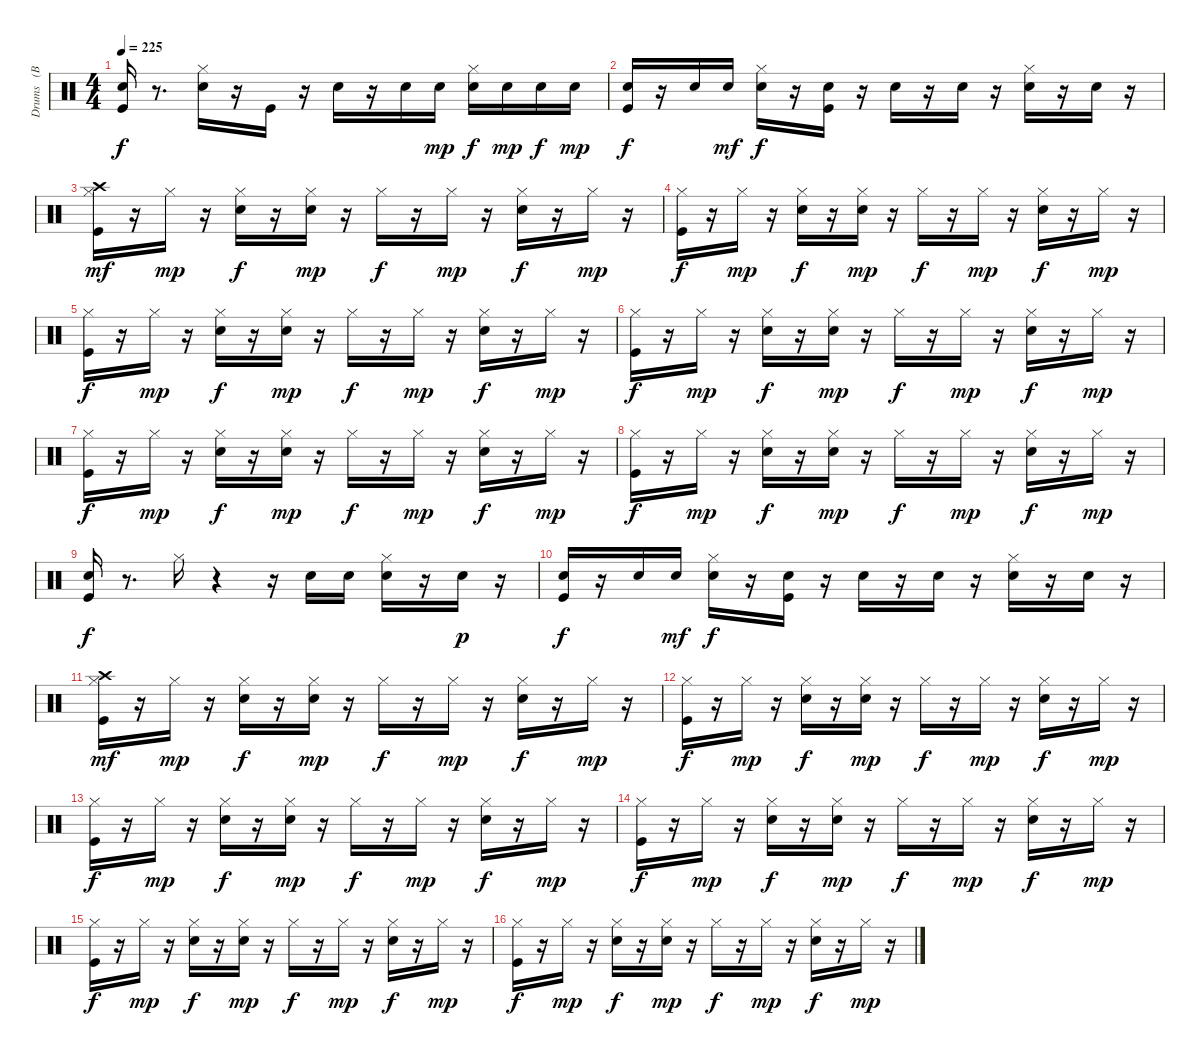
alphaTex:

\track ("Drums   (BB)" "Drums   (B") {instrument percussion}
\staff {score}
\articulation defaults
\ts (4 4)
\tempo 225
\clef neutral
\ks c
("Kick (hit)" "Snare (hit) 2").16{dy f} r.8{d} ("Snare (hit) 2" "Hi-Hat (closed)").16 r.16 "Kick (hit)".16 r.16 "Snare (hit) 2".16 r.16 "Snare (hit) 2".16 "Snare (hit) 2".16{dy mp} ("Snare (hit) 2" "Hi-Hat (closed)").16{dy f} "Snare (hit) 2".16{dy mp} "Snare (hit) 2".16{dy f} "Snare (hit) 2".16{dy mp} |
("Kick (hit)" "Snare (hit) 2").16{dy f} r.16 "Snare (hit) 2".16 "Snare (hit) 2".16{dy mf} ("Snare (hit) 2" "Hi-Hat (closed)").16{dy f} r.16 ("Kick (hit)" "Snare (hit) 2").16 r.16 "Snare (hit) 2".16 r.16 "Snare (hit) 2".16 r.16 ("Snare (hit) 2" "Hi-Hat (closed)").16 r.16 "Snare (hit) 2".16 r.16 |
("Kick (hit)" "Hi-Hat (closed)" "Crash high (hit)").16{dy mf} r.16 "Hi-Hat (closed)".16{dy mp} r.16 ("Snare (hit) 2" "Hi-Hat (closed)").16{dy f} r.16 ("Snare (hit) 2" "Hi-Hat (closed)").16{dy mp} r.16 "Hi-Hat (closed)".16{dy f} r.16 "Hi-Hat (closed)".16{dy mp} r.16 ("Snare (hit) 2" "Hi-Hat (closed)").16{dy f} r.16 "Hi-Hat (closed)".16{dy mp} r.16 |
("Kick (hit)" "Hi-Hat (closed)").16{dy f} r.16 "Hi-Hat (closed)".16{dy mp} r.16 ("Snare (hit) 2" "Hi-Hat (closed)").16{dy f} r.16 ("Snare (hit) 2" "Hi-Hat (closed)").16{dy mp} r.16 "Hi-Hat (closed)".16{dy f} r.16 "Hi-Hat (closed)".16{dy mp} r.16 ("Snare (hit) 2" "Hi-Hat (closed)").16{dy f} r.16 "Hi-Hat (closed)".16{dy mp} r.16 |
("Kick (hit)" "Hi-Hat (closed)").16{dy f} r.16 "Hi-Hat (closed)".16{dy mp} r.16 ("Snare (hit) 2" "Hi-Hat (closed)").16{dy f} r.16 ("Snare (hit) 2" "Hi-Hat (closed)").16{dy mp} r.16 "Hi-Hat (closed)".16{dy f} r.16 "Hi-Hat (closed)".16{dy mp} r.16 ("Snare (hit) 2" "Hi-Hat (closed)").16{dy f} r.16 "Hi-Hat (closed)".16{dy mp} r.16 |
("Kick (hit)" "Hi-Hat (closed)").16{dy f} r.16 "Hi-Hat (closed)".16{dy mp} r.16 ("Snare (hit) 2" "Hi-Hat (closed)").16{dy f} r.16 ("Snare (hit) 2" "Hi-Hat (closed)").16{dy mp} r.16 "Hi-Hat (closed)".16{dy f} r.16 "Hi-Hat (closed)".16{dy mp} r.16 ("Snare (hit) 2" "Hi-Hat (closed)").16{dy f} r.16 "Hi-Hat (closed)".16{dy mp} r.16 |
("Kick (hit)" "Hi-Hat (closed)").16{dy f} r.16 "Hi-Hat (closed)".16{dy mp} r.16 ("Snare (hit) 2" "Hi-Hat (closed)").16{dy f} r.16 ("Snare (hit) 2" "Hi-Hat (closed)").16{dy mp} r.16 "Hi-Hat (closed)".16{dy f} r.16 "Hi-Hat (closed)".16{dy mp} r.16 ("Snare (hit) 2" "Hi-Hat (closed)").16{dy f} r.16 "Hi-Hat (closed)".16{dy mp} r.16 |
("Kick (hit)" "Hi-Hat (closed)").16{dy f} r.16 "Hi-Hat (closed)".16{dy mp} r.16 ("Snare (hit) 2" "Hi-Hat (closed)").16{dy f} r.16 ("Snare (hit) 2" "Hi-Hat (closed)").16{dy mp} r.16 "Hi-Hat (closed)".16{dy f} r.16 "Hi-Hat (closed)".16{dy mp} r.16 ("Snare (hit) 2" "Hi-Hat (closed)").16{dy f} r.16 "Hi-Hat (closed)".16{dy mp} r.16 |
("Kick (hit)" "Snare (hit) 2").16{dy f} r.8{d} "Hi-Hat (closed)".16 r.4 r.16 "Snare (hit) 2".16 "Snare (hit) 2".16 ("Snare (hit) 2" "Hi-Hat (closed)").16 r.16 "Snare (hit) 2".16{dy p} r.16 |
("Kick (hit)" "Snare (hit) 2").16{dy f} r.16 "Snare (hit) 2".16 "Snare (hit) 2".16{dy mf} ("Snare (hit) 2" "Hi-Hat (closed)").16{dy f} r.16 ("Kick (hit)" "Snare (hit) 2").16 r.16 "Snare (hit) 2".16 r.16 "Snare (hit) 2".16 r.16 ("Snare (hit) 2" "Hi-Hat (closed)").16 r.16 "Snare (hit) 2".16 r.16 |
("Kick (hit)" "Hi-Hat (closed)" "Crash high (hit)").16{dy mf} r.16 "Hi-Hat (closed)".16{dy mp} r.16 ("Snare (hit) 2" "Hi-Hat (closed)").16{dy f} r.16 ("Snare (hit) 2" "Hi-Hat (closed)").16{dy mp} r.16 "Hi-Hat (closed)".16{dy f} r.16 "Hi-Hat (closed)".16{dy mp} r.16 ("Snare (hit) 2" "Hi-Hat (closed)").16{dy f} r.16 "Hi-Hat (closed)".16{dy mp} r.16 |
("Kick (hit)" "Hi-Hat (closed)").16{dy f} r.16 "Hi-Hat (closed)".16{dy mp} r.16 ("Snare (hit) 2" "Hi-Hat (closed)").16{dy f} r.16 ("Snare (hit) 2" "Hi-Hat (closed)").16{dy mp} r.16 "Hi-Hat (closed)".16{dy f} r.16 "Hi-Hat (closed)".16{dy mp} r.16 ("Snare (hit) 2" "Hi-Hat (closed)").16{dy f} r.16 "Hi-Hat (closed)".16{dy mp} r.16 |
("Kick (hit)" "Hi-Hat (closed)").16{dy f} r.16 "Hi-Hat (closed)".16{dy mp} r.16 ("Snare (hit) 2" "Hi-Hat (closed)").16{dy f} r.16 ("Snare (hit) 2" "Hi-Hat (closed)").16{dy mp} r.16 "Hi-Hat (closed)".16{dy f} r.16 "Hi-Hat (closed)".16{dy mp} r.16 ("Snare (hit) 2" "Hi-Hat (closed)").16{dy f} r.16 "Hi-Hat (closed)".16{dy mp} r.16 |
("Kick (hit)" "Hi-Hat (closed)").16{dy f} r.16 "Hi-Hat (closed)".16{dy mp} r.16 ("Snare (hit) 2" "Hi-Hat (closed)").16{dy f} r.16 ("Snare (hit) 2" "Hi-Hat (closed)").16{dy mp} r.16 "Hi-Hat (closed)".16{dy f} r.16 "Hi-Hat (closed)".16{dy mp} r.16 ("Snare (hit) 2" "Hi-Hat (closed)").16{dy f} r.16 "Hi-Hat (closed)".16{dy mp} r.16 |
("Kick (hit)" "Hi-Hat (closed)").16{dy f} r.16 "Hi-Hat (closed)".16{dy mp} r.16 ("Snare (hit) 2" "Hi-Hat (closed)").16{dy f} r.16 ("Snare (hit) 2" "Hi-Hat (closed)").16{dy mp} r.16 "Hi-Hat (closed)".16{dy f} r.16 "Hi-Hat (closed)".16{dy mp} r.16 ("Snare (hit) 2" "Hi-Hat (closed)").16{dy f} r.16 "Hi-Hat (closed)".16{dy mp} r.16 |
("Kick (hit)" "Hi-Hat (closed)").16{dy f} r.16 "Hi-Hat (closed)".16{dy mp} r.16 ("Snare (hit) 2" "Hi-Hat (closed)").16{dy f} r.16 ("Snare (hit) 2" "Hi-Hat (closed)").16{dy mp} r.16 "Hi-Hat (closed)".16{dy f} r.16 "Hi-Hat (closed)".16{dy mp} r.16 ("Snare (hit) 2" "Hi-Hat (closed)").16{dy f} r.16 "Hi-Hat (closed)".16{dy mp} r.16
